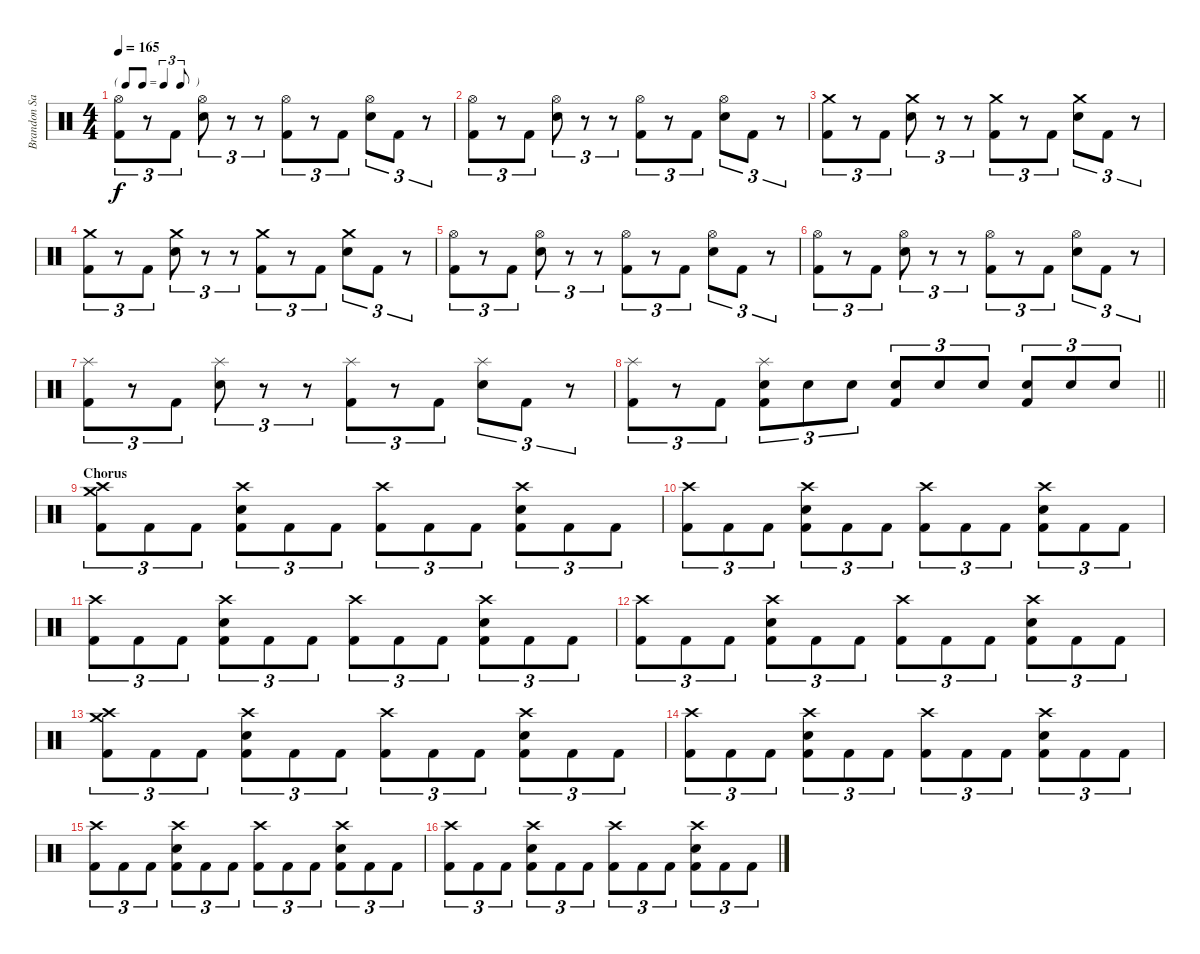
\track ("Brandon Saller" "Brandon Sa") {instrument percussion}
\staff {score}
\articulation defaults
\ts (4 4)
\tf triplet8th
\tempo 165
\clef neutral
\ks c
("Hi-Hat (open)" "Kick (hit) 2").8{tu (3 2) dy f} r.8{tu (3 2)} "Kick (hit) 2".8{tu (3 2)} ("Hi-Hat (open)" "Electric Snare (hit)").8{tu (3 2)} r.8{tu (3 2)} r.8{tu (3 2)} ("Hi-Hat (open)" "Kick (hit) 2").8{tu (3 2)} r.8{tu (3 2)} "Kick (hit) 2".8{tu (3 2)} ("Hi-Hat (open)" "Electric Snare (hit)").8{tu (3 2)} "Kick (hit) 2".8{tu (3 2)} r.8{tu (3 2)} |
("Hi-Hat (open)" "Kick (hit) 2").8{tu (3 2)} r.8{tu (3 2)} "Kick (hit) 2".8{tu (3 2)} ("Hi-Hat (open)" "Electric Snare (hit)").8{tu (3 2)} r.8{tu (3 2)} r.8{tu (3 2)} ("Hi-Hat (open)" "Kick (hit) 2").8{tu (3 2)} r.8{tu (3 2)} "Kick (hit) 2".8{tu (3 2)} ("Hi-Hat (open)" "Electric Snare (hit)").8{tu (3 2)} "Kick (hit) 2".8{tu (3 2)} r.8{tu (3 2)} |
("Crash medium (hit)" "Kick (hit) 2").8{tu (3 2)} r.8{tu (3 2)} "Kick (hit) 2".8{tu (3 2)} ("Crash medium (hit)" "Electric Snare (hit)").8{tu (3 2)} r.8{tu (3 2)} r.8{tu (3 2)} ("Crash medium (hit)" "Kick (hit) 2").8{tu (3 2)} r.8{tu (3 2)} "Kick (hit) 2".8{tu (3 2)} ("Crash medium (hit)" "Electric Snare (hit)").8{tu (3 2)} "Kick (hit) 2".8{tu (3 2)} r.8{tu (3 2)} |
("Crash medium (hit)" "Kick (hit) 2").8{tu (3 2)} r.8{tu (3 2)} "Kick (hit) 2".8{tu (3 2)} ("Crash medium (hit)" "Electric Snare (hit)").8{tu (3 2)} r.8{tu (3 2)} r.8{tu (3 2)} ("Crash medium (hit)" "Kick (hit) 2").8{tu (3 2)} r.8{tu (3 2)} "Kick (hit) 2".8{tu (3 2)} ("Crash medium (hit)" "Electric Snare (hit)").8{tu (3 2)} "Kick (hit) 2".8{tu (3 2)} r.8{tu (3 2)} |
("Hi-Hat (open)" "Kick (hit) 2").8{tu (3 2)} r.8{tu (3 2)} "Kick (hit) 2".8{tu (3 2)} ("Hi-Hat (open)" "Electric Snare (hit)").8{tu (3 2)} r.8{tu (3 2)} r.8{tu (3 2)} ("Hi-Hat (open)" "Kick (hit) 2").8{tu (3 2)} r.8{tu (3 2)} "Kick (hit) 2".8{tu (3 2)} ("Hi-Hat (open)" "Electric Snare (hit)").8{tu (3 2)} "Kick (hit) 2".8{tu (3 2)} r.8{tu (3 2)} |
("Hi-Hat (open)" "Kick (hit) 2").8{tu (3 2)} r.8{tu (3 2)} "Kick (hit) 2".8{tu (3 2)} ("Hi-Hat (open)" "Electric Snare (hit)").8{tu (3 2)} r.8{tu (3 2)} r.8{tu (3 2)} ("Hi-Hat (open)" "Kick (hit) 2").8{tu (3 2)} r.8{tu (3 2)} "Kick (hit) 2".8{tu (3 2)} ("Hi-Hat (open)" "Electric Snare (hit)").8{tu (3 2)} "Kick (hit) 2".8{tu (3 2)} r.8{tu (3 2)} |
("Splash (hit)" "Kick (hit) 2").8{tu (3 2)} r.8{tu (3 2)} "Kick (hit) 2".8{tu (3 2)} ("Splash (hit)" "Electric Snare (hit)").8{tu (3 2)} r.8{tu (3 2)} r.8{tu (3 2)} ("Splash (hit)" "Kick (hit) 2").8{tu (3 2)} r.8{tu (3 2)} "Kick (hit) 2".8{tu (3 2)} ("Splash (hit)" "Electric Snare (hit)").8{tu (3 2)} "Kick (hit) 2".8{tu (3 2)} r.8{tu (3 2)} |
\barLineRight lightlight
("Splash (hit)" "Kick (hit) 2").8{tu (3 2)} r.8{tu (3 2)} "Kick (hit) 2".8{tu (3 2)} ("Splash (hit)" "Electric Snare (hit)" "Kick (hit) 2").8{tu (3 2)} "Electric Snare (hit)".8{tu (3 2)} "Electric Snare (hit)".8{tu (3 2)} ("Electric Snare (hit)" "Kick (hit) 2").8{tu (3 2)} "Electric Snare (hit)".8{tu (3 2)} "Electric Snare (hit)".8{tu (3 2)} ("Electric Snare (hit)" "Kick (hit) 2").8{tu (3 2)} "Electric Snare (hit)".8{tu (3 2)} "Electric Snare (hit)".8{tu (3 2)} |
\section ("" "Chorus")
("Crash high (hit)" "Crash medium (hit)" "Kick (hit) 2").8{tu (3 2)} "Kick (hit) 2".8{tu (3 2)} "Kick (hit) 2".8{tu (3 2)} ("Crash high (hit)" "Electric Snare (hit)" "Kick (hit) 2").8{tu (3 2)} "Kick (hit) 2".8{tu (3 2)} "Kick (hit) 2".8{tu (3 2)} ("Crash high (hit)" "Kick (hit) 2").8{tu (3 2)} "Kick (hit) 2".8{tu (3 2)} "Kick (hit) 2".8{tu (3 2)} ("Crash high (hit)" "Electric Snare (hit)" "Kick (hit) 2").8{tu (3 2)} "Kick (hit) 2".8{tu (3 2)} "Kick (hit) 2".8{tu (3 2)} |
("Crash high (hit)" "Kick (hit) 2").8{tu (3 2)} "Kick (hit) 2".8{tu (3 2)} "Kick (hit) 2".8{tu (3 2)} ("Crash high (hit)" "Electric Snare (hit)" "Kick (hit) 2").8{tu (3 2)} "Kick (hit) 2".8{tu (3 2)} "Kick (hit) 2".8{tu (3 2)} ("Crash high (hit)" "Kick (hit) 2").8{tu (3 2)} "Kick (hit) 2".8{tu (3 2)} "Kick (hit) 2".8{tu (3 2)} ("Crash high (hit)" "Electric Snare (hit)" "Kick (hit) 2").8{tu (3 2)} "Kick (hit) 2".8{tu (3 2)} "Kick (hit) 2".8{tu (3 2)} |
("Crash high (hit)" "Kick (hit) 2").8{tu (3 2)} "Kick (hit) 2".8{tu (3 2)} "Kick (hit) 2".8{tu (3 2)} ("Crash high (hit)" "Electric Snare (hit)" "Kick (hit) 2").8{tu (3 2)} "Kick (hit) 2".8{tu (3 2)} "Kick (hit) 2".8{tu (3 2)} ("Crash high (hit)" "Kick (hit) 2").8{tu (3 2)} "Kick (hit) 2".8{tu (3 2)} "Kick (hit) 2".8{tu (3 2)} ("Crash high (hit)" "Electric Snare (hit)" "Kick (hit) 2").8{tu (3 2)} "Kick (hit) 2".8{tu (3 2)} "Kick (hit) 2".8{tu (3 2)} |
("Crash high (hit)" "Kick (hit) 2").8{tu (3 2)} "Kick (hit) 2".8{tu (3 2)} "Kick (hit) 2".8{tu (3 2)} ("Crash high (hit)" "Electric Snare (hit)" "Kick (hit) 2").8{tu (3 2)} "Kick (hit) 2".8{tu (3 2)} "Kick (hit) 2".8{tu (3 2)} ("Crash high (hit)" "Kick (hit) 2").8{tu (3 2)} "Kick (hit) 2".8{tu (3 2)} "Kick (hit) 2".8{tu (3 2)} ("Crash high (hit)" "Electric Snare (hit)" "Kick (hit) 2").8{tu (3 2)} "Kick (hit) 2".8{tu (3 2)} "Kick (hit) 2".8{tu (3 2)} |
("Crash high (hit)" "Crash medium (hit)" "Kick (hit) 2").8{tu (3 2)} "Kick (hit) 2".8{tu (3 2)} "Kick (hit) 2".8{tu (3 2)} ("Crash high (hit)" "Electric Snare (hit)" "Kick (hit) 2").8{tu (3 2)} "Kick (hit) 2".8{tu (3 2)} "Kick (hit) 2".8{tu (3 2)} ("Crash high (hit)" "Kick (hit) 2").8{tu (3 2)} "Kick (hit) 2".8{tu (3 2)} "Kick (hit) 2".8{tu (3 2)} ("Crash high (hit)" "Electric Snare (hit)" "Kick (hit) 2").8{tu (3 2)} "Kick (hit) 2".8{tu (3 2)} "Kick (hit) 2".8{tu (3 2)} |
("Crash high (hit)" "Kick (hit) 2").8{tu (3 2)} "Kick (hit) 2".8{tu (3 2)} "Kick (hit) 2".8{tu (3 2)} ("Crash high (hit)" "Electric Snare (hit)" "Kick (hit) 2").8{tu (3 2)} "Kick (hit) 2".8{tu (3 2)} "Kick (hit) 2".8{tu (3 2)} ("Crash high (hit)" "Kick (hit) 2").8{tu (3 2)} "Kick (hit) 2".8{tu (3 2)} "Kick (hit) 2".8{tu (3 2)} ("Crash high (hit)" "Electric Snare (hit)" "Kick (hit) 2").8{tu (3 2)} "Kick (hit) 2".8{tu (3 2)} "Kick (hit) 2".8{tu (3 2)} |
("Crash high (hit)" "Kick (hit) 2").8{tu (3 2)} "Kick (hit) 2".8{tu (3 2)} "Kick (hit) 2".8{tu (3 2)} ("Crash high (hit)" "Electric Snare (hit)" "Kick (hit) 2").8{tu (3 2)} "Kick (hit) 2".8{tu (3 2)} "Kick (hit) 2".8{tu (3 2)} ("Crash high (hit)" "Kick (hit) 2").8{tu (3 2)} "Kick (hit) 2".8{tu (3 2)} "Kick (hit) 2".8{tu (3 2)} ("Crash high (hit)" "Electric Snare (hit)" "Kick (hit) 2").8{tu (3 2)} "Kick (hit) 2".8{tu (3 2)} "Kick (hit) 2".8{tu (3 2)} |
("Crash high (hit)" "Kick (hit) 2").8{tu (3 2)} "Kick (hit) 2".8{tu (3 2)} "Kick (hit) 2".8{tu (3 2)} ("Crash high (hit)" "Electric Snare (hit)" "Kick (hit) 2").8{tu (3 2)} "Kick (hit) 2".8{tu (3 2)} "Kick (hit) 2".8{tu (3 2)} ("Crash high (hit)" "Kick (hit) 2").8{tu (3 2)} "Kick (hit) 2".8{tu (3 2)} "Kick (hit) 2".8{tu (3 2)} ("Crash high (hit)" "Electric Snare (hit)" "Kick (hit) 2").8{tu (3 2)} "Kick (hit) 2".8{tu (3 2)} "Kick (hit) 2".8{tu (3 2)}
